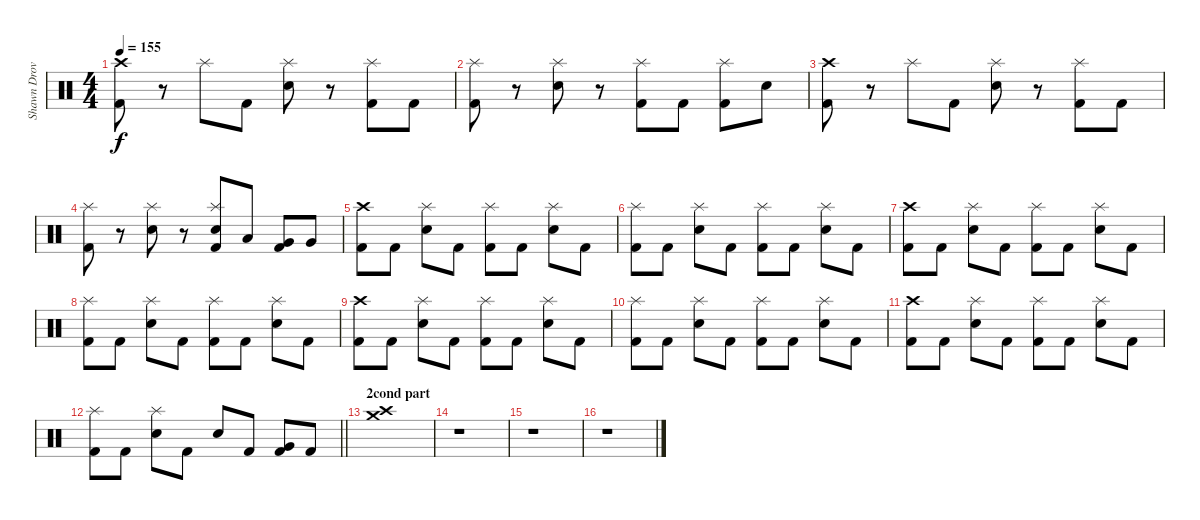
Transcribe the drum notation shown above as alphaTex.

\track ("Shawn Drover" "Shawn Drov") {instrument percussion}
\staff {score}
\articulation defaults
\ts (4 4)
\tempo 155
\clef neutral
\ks c
("Crash high (hit)" "Kick (hit) 2").8{dy f} r.8 "Splash (hit)".8 "Kick (hit) 2".8 ("Splash (hit)" "Snare (hit) 2").8 r.8 ("Splash (hit)" "Kick (hit) 2").8 "Kick (hit) 2".8 |
("Splash (hit)" "Kick (hit) 2").8 r.8 ("Splash (hit)" "Snare (hit) 2").8 r.8 ("Splash (hit)" "Kick (hit) 2").8 "Kick (hit) 2".8 ("Splash (hit)" "Kick (hit) 2").8 "Snare (hit) 2".8 |
("Crash high (hit)" "Kick (hit) 2").8 r.8 "Splash (hit)".8 "Kick (hit) 2".8 ("Splash (hit)" "Snare (hit) 2").8 r.8 ("Splash (hit)" "Kick (hit) 2").8 "Kick (hit) 2".8 |
("Splash (hit)" "Kick (hit) 2").8 r.8 ("Splash (hit)" "Snare (hit) 2").8 r.8 ("Splash (hit)" "Snare (hit) 2" "Kick (hit) 2").8 "Low Tom (hit)".8 ("Very Low Tom (hit)" "Kick (hit) 2").8 "Very Low Tom (hit)".8 |
("Crash high (hit)" "Kick (hit) 2").8 "Kick (hit) 2".8 ("Splash (hit)" "Snare (hit) 2").8 "Kick (hit) 2".8 ("Splash (hit)" "Kick (hit) 2").8 "Kick (hit) 2".8 ("Splash (hit)" "Snare (hit) 2").8 "Kick (hit) 2".8 |
("Splash (hit)" "Kick (hit) 2").8 "Kick (hit) 2".8 ("Splash (hit)" "Snare (hit) 2").8 "Kick (hit) 2".8 ("Splash (hit)" "Kick (hit) 2").8 "Kick (hit) 2".8 ("Splash (hit)" "Snare (hit) 2").8 "Kick (hit) 2".8 |
("Crash high (hit)" "Kick (hit) 2").8 "Kick (hit) 2".8 ("Splash (hit)" "Snare (hit) 2").8 "Kick (hit) 2".8 ("Splash (hit)" "Kick (hit) 2").8 "Kick (hit) 2".8 ("Splash (hit)" "Snare (hit) 2").8 "Kick (hit) 2".8 |
("Splash (hit)" "Kick (hit) 2").8 "Kick (hit) 2".8 ("Splash (hit)" "Snare (hit) 2").8 "Kick (hit) 2".8 ("Splash (hit)" "Kick (hit) 2").8 "Kick (hit) 2".8 ("Splash (hit)" "Snare (hit) 2").8 "Kick (hit) 2".8 |
("Crash high (hit)" "Kick (hit) 2").8 "Kick (hit) 2".8 ("Splash (hit)" "Snare (hit) 2").8 "Kick (hit) 2".8 ("Splash (hit)" "Kick (hit) 2").8 "Kick (hit) 2".8 ("Splash (hit)" "Snare (hit) 2").8 "Kick (hit) 2".8 |
("Splash (hit)" "Kick (hit) 2").8 "Kick (hit) 2".8 ("Splash (hit)" "Snare (hit) 2").8 "Kick (hit) 2".8 ("Splash (hit)" "Kick (hit) 2").8 "Kick (hit) 2".8 ("Splash (hit)" "Snare (hit) 2").8 "Kick (hit) 2".8 |
("Crash high (hit)" "Kick (hit) 2").8 "Kick (hit) 2".8 ("Splash (hit)" "Snare (hit) 2").8 "Kick (hit) 2".8 ("Splash (hit)" "Kick (hit) 2").8 "Kick (hit) 2".8 ("Splash (hit)" "Snare (hit) 2").8 "Kick (hit) 2".8 |
\barLineRight lightlight
("Splash (hit)" "Kick (hit) 2").8 "Kick (hit) 2".8 ("Splash (hit)" "Snare (hit) 2").8 "Kick (hit) 2".8 "Snare (hit) 2".8 "Kick (hit) 2".8 ("Very Low Tom (hit)" "Kick (hit) 2").8 "Kick (hit) 2".8 |
\section ("" "2cond part")
("Crash high (hit)" "Crash medium (hit)").1 |
r.1 |
r.1 |
r.1
